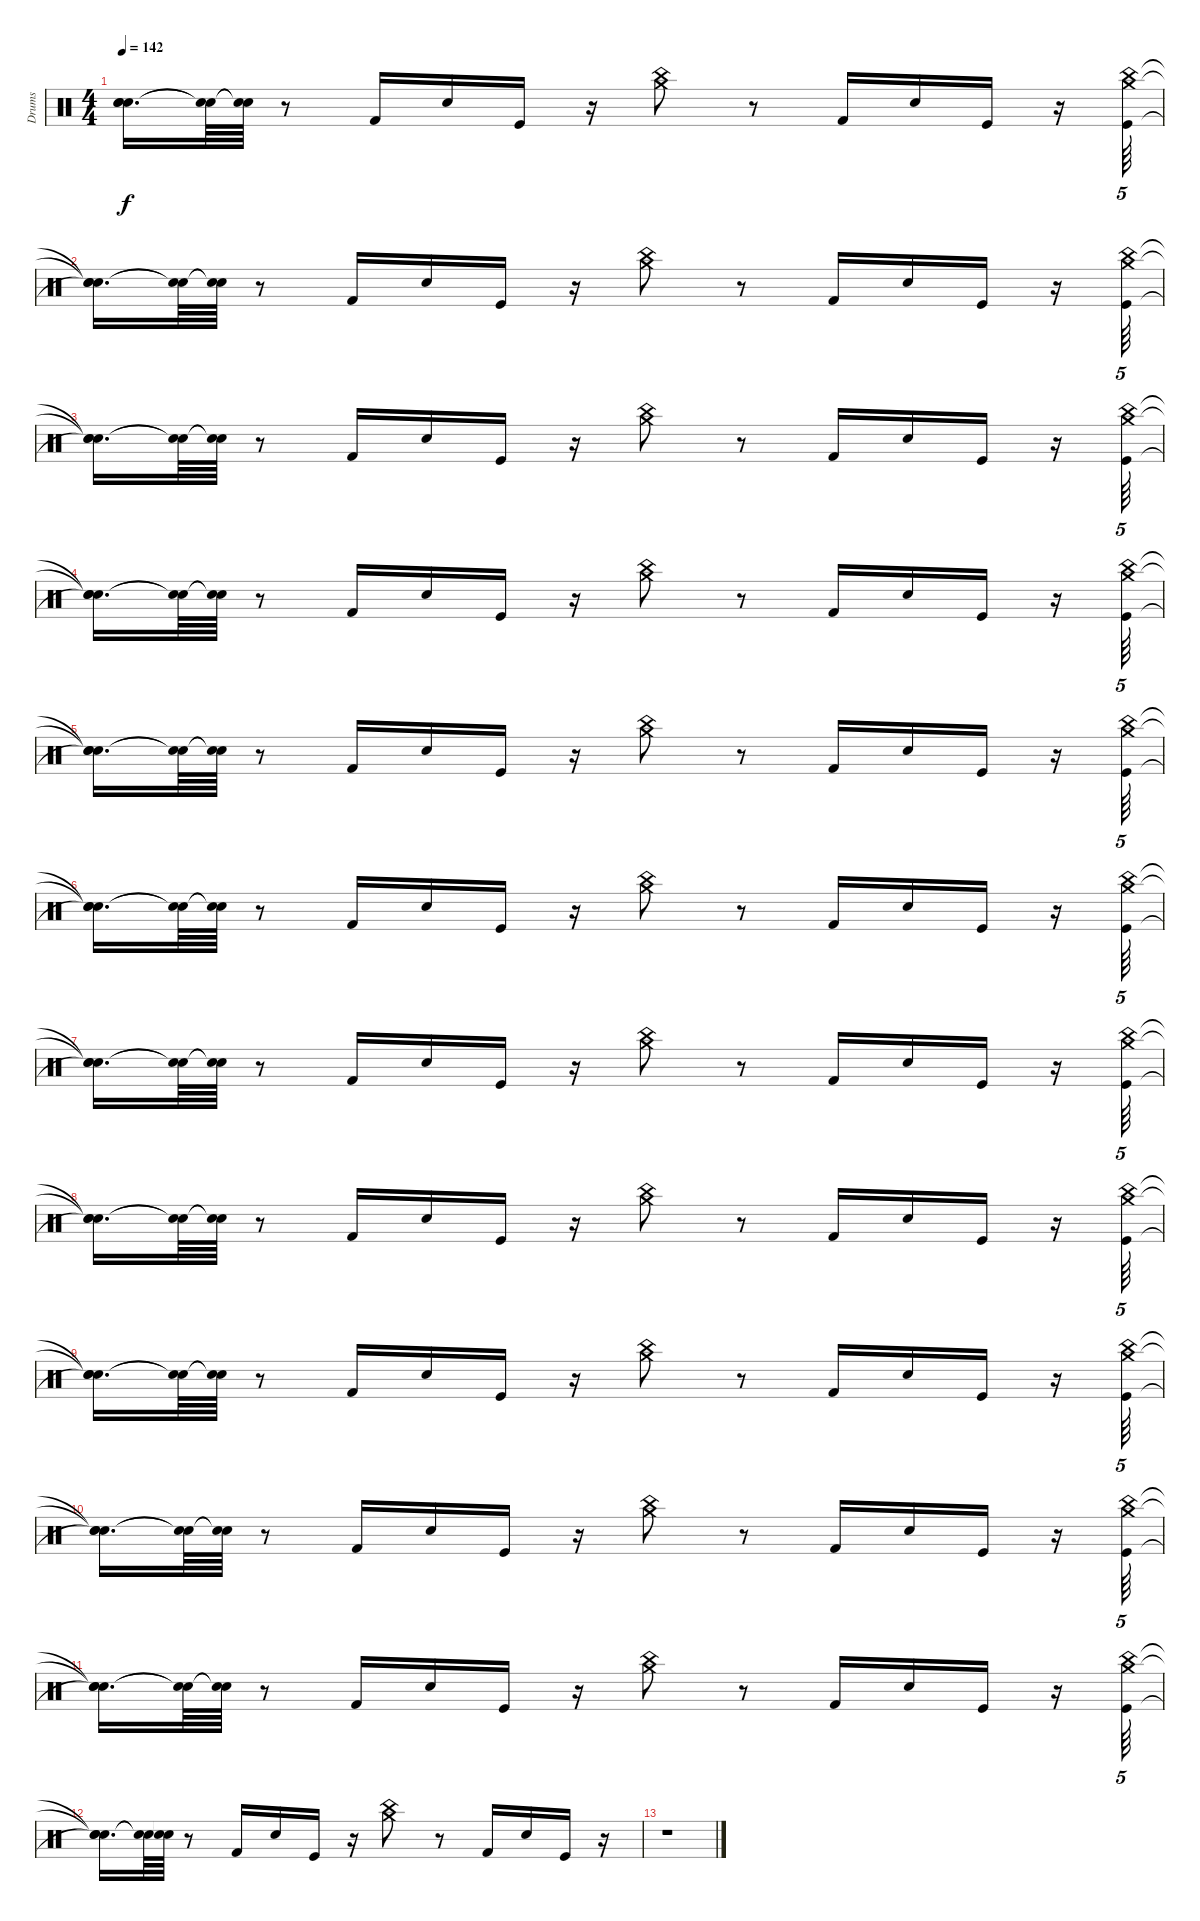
\track ("Drums" "Drums") {instrument percussion}
\staff {score}
\articulation defaults
\ts (4 4)
\tempo 142
\clef neutral
\ks c
("Snare (hit)"{t} "Snare (hit)"{t} "Snare (hit)"{t}).16{d dy f} ("Snare (hit)"{t} "Snare (hit)"{t}).64 ("Snare (hit)"{t} "Snare (hit)"{t}).64 r.8 "Kick (hit) 2".16 "Snare (hit) 2".16 "Kick (hit)".16 r.16 ("China (hit)" "Crash medium (hit)").8 r.8 "Kick (hit) 2".16 "Snare (hit) 2".16 "Kick (hit)".16 r.16 ("Kick (hit)" "China (hit)" "Crash medium (hit)").64{tu (5 4)} |
("Snare (hit)"{t} "Snare (hit)"{t} "Snare (hit)"{t}).16{d} ("Snare (hit)"{t} "Snare (hit)"{t}).64 ("Snare (hit)"{t} "Snare (hit)"{t}).64 r.8 "Kick (hit) 2".16 "Snare (hit) 2".16 "Kick (hit)".16 r.16 ("China (hit)" "Crash medium (hit)").8 r.8 "Kick (hit) 2".16 "Snare (hit) 2".16 "Kick (hit)".16 r.16 ("Kick (hit)" "China (hit)" "Crash medium (hit)").64{tu (5 4) volume 14} |
("Snare (hit)"{t} "Snare (hit)"{t} "Snare (hit)"{t}).16{d} ("Snare (hit)"{t} "Snare (hit)"{t}).64 ("Snare (hit)"{t} "Snare (hit)"{t}).64 r.8 "Kick (hit) 2".16{volume 14} "Snare (hit) 2".16{volume 14} "Kick (hit)".16{volume 14} r.16 ("China (hit)" "Crash medium (hit)").8{volume 14} r.8 "Kick (hit) 2".16{volume 14} "Snare (hit) 2".16{volume 13} "Kick (hit)".16{volume 13} r.16 ("Kick (hit)" "China (hit)" "Crash medium (hit)").64{tu (5 4) volume 13} |
("Snare (hit)"{t} "Snare (hit)"{t} "Snare (hit)"{t}).16{d} ("Snare (hit)"{t} "Snare (hit)"{t}).64 ("Snare (hit)"{t} "Snare (hit)"{t}).64 r.8 "Kick (hit) 2".16{volume 13} "Snare (hit) 2".16{volume 13} "Kick (hit)".16 r.16 ("China (hit)" "Crash medium (hit)").8{volume 12} r.8 "Kick (hit) 2".16{volume 12} "Snare (hit) 2".16{volume 12} "Kick (hit)".16 r.16 ("Kick (hit)" "China (hit)" "Crash medium (hit)").64{tu (5 4) volume 12} |
("Snare (hit)"{t} "Snare (hit)"{t} "Snare (hit)"{t}).16{d} ("Snare (hit)"{t} "Snare (hit)"{t}).64 ("Snare (hit)"{t} "Snare (hit)"{t}).64 r.8 "Kick (hit) 2".16{volume 11} "Snare (hit) 2".16 "Kick (hit)".16{volume 11} r.16 ("China (hit)" "Crash medium (hit)").8{volume 11} r.8 "Kick (hit) 2".16{volume 11} "Snare (hit) 2".16{volume 10} "Kick (hit)".16{volume 10} r.16 ("Kick (hit)" "China (hit)" "Crash medium (hit)").64{tu (5 4) volume 10} |
("Snare (hit)"{t} "Snare (hit)"{t} "Snare (hit)"{t}).16{d} ("Snare (hit)"{t} "Snare (hit)"{t}).64 ("Snare (hit)"{t} "Snare (hit)"{t}).64 r.8 "Kick (hit) 2".16{volume 10} "Snare (hit) 2".16{volume 10} "Kick (hit)".16{volume 10} r.16 ("China (hit)" "Crash medium (hit)").8{volume 10} r.8 "Kick (hit) 2".16{volume 9} "Snare (hit) 2".16{volume 9} "Kick (hit)".16 r.16 ("Kick (hit)" "China (hit)" "Crash medium (hit)").64{tu (5 4) volume 9} |
("Snare (hit)"{t} "Snare (hit)"{t} "Snare (hit)"{t}).16{d} ("Snare (hit)"{t} "Snare (hit)"{t}).64 ("Snare (hit)"{t} "Snare (hit)"{t}).64 r.8 "Kick (hit) 2".16{volume 8} "Snare (hit) 2".16{volume 8} "Kick (hit)".16 r.16 ("China (hit)" "Crash medium (hit)").8{volume 8} r.8 "Kick (hit) 2".16{volume 8} "Snare (hit) 2".16 "Kick (hit)".16{volume 8} r.16 ("Kick (hit)" "China (hit)" "Crash medium (hit)").64{tu (5 4) volume 7} |
("Snare (hit)"{t} "Snare (hit)"{t} "Snare (hit)"{t}).16{d} ("Snare (hit)"{t} "Snare (hit)"{t}).64 ("Snare (hit)"{t} "Snare (hit)"{t}).64 r.8 "Kick (hit) 2".16{volume 7} "Snare (hit) 2".16{volume 7} "Kick (hit)".16{volume 7} r.16 ("China (hit)" "Crash medium (hit)").8{volume 7} r.8 "Kick (hit) 2".16{volume 6} "Snare (hit) 2".16{volume 6} "Kick (hit)".16{volume 6} r.16 ("Kick (hit)" "China (hit)" "Crash medium (hit)").64{tu (5 4) volume 6} |
("Snare (hit)"{t} "Snare (hit)"{t} "Snare (hit)"{t}).16{d} ("Snare (hit)"{t} "Snare (hit)"{t}).64 ("Snare (hit)"{t} "Snare (hit)"{t}).64 r.8 "Kick (hit) 2".16{volume 6} "Snare (hit) 2".16{volume 5} "Kick (hit)".16 r.16 ("China (hit)" "Crash medium (hit)").8{volume 5} r.8 "Kick (hit) 2".16{volume 5} "Snare (hit) 2".16{volume 5} "Kick (hit)".16 r.16 ("Kick (hit)" "China (hit)" "Crash medium (hit)").64{tu (5 4) volume 4} |
("Snare (hit)"{t} "Snare (hit)"{t} "Snare (hit)"{t}).16{d} ("Snare (hit)"{t} "Snare (hit)"{t}).64 ("Snare (hit)"{t} "Snare (hit)"{t}).64 r.8 "Kick (hit) 2".16{volume 4} "Snare (hit) 2".16 "Kick (hit)".16{volume 4} r.16 ("China (hit)" "Crash medium (hit)").8{volume 4} r.8 "Kick (hit) 2".16{volume 3} "Snare (hit) 2".16{volume 3} "Kick (hit)".16{volume 3} r.16 ("Kick (hit)" "China (hit)" "Crash medium (hit)").64{tu (5 4) volume 3} |
("Snare (hit)"{t} "Snare (hit)"{t} "Snare (hit)"{t}).16{d} ("Snare (hit)"{t} "Snare (hit)"{t}).64 ("Snare (hit)"{t} "Snare (hit)"{t}).64 r.8 "Kick (hit) 2".16{volume 3} "Snare (hit) 2".16{volume 2} "Kick (hit)".16{volume 2} r.16 ("China (hit)" "Crash medium (hit)").8{volume 2} r.8 "Kick (hit) 2".16{volume 2} "Snare (hit) 2".16{volume 2} "Kick (hit)".16 r.16 ("Kick (hit)" "China (hit)" "Crash medium (hit)").64{tu (5 4) volume 2} |
("Snare (hit)"{t} "Snare (hit)"{t} "Snare (hit)"{t}).16{d} ("Snare (hit)"{t} "Snare (hit)"{t}).64 ("Snare (hit)"{t} "Snare (hit)"{t}).64 r.8 "Kick (hit) 2".16{volume 1} "Snare (hit) 2".16{volume 1} "Kick (hit)".16 r.16 ("China (hit)" "Crash medium (hit)").8{volume 1} r.8 "Kick (hit) 2".16{volume 0} "Snare (hit) 2".16 "Kick (hit)".16{volume 0} r.16 |
r.1
